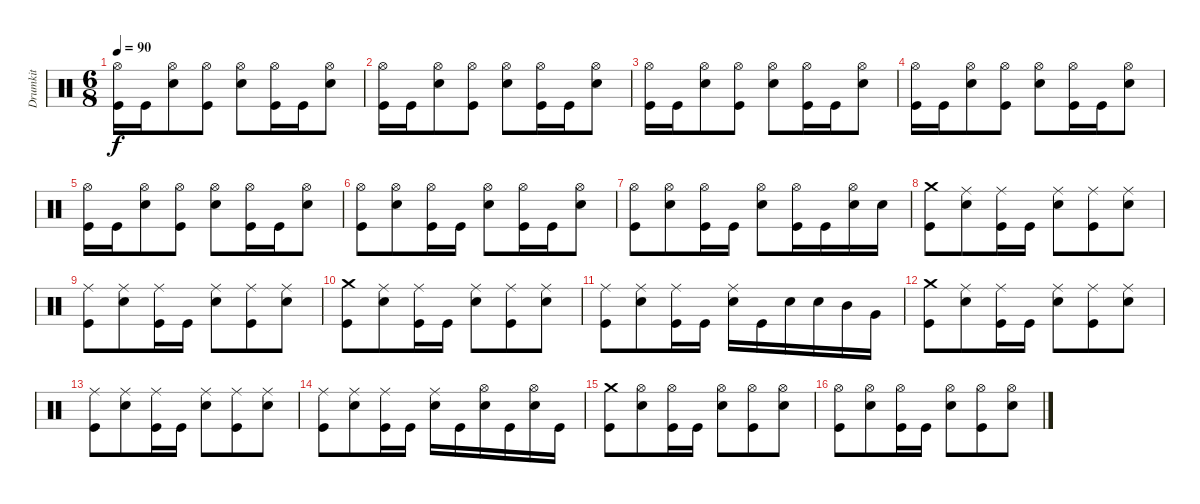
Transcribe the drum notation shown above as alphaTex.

\track ("Drumkit" "Drumkit") {instrument percussion}
\staff {score}
\articulation defaults
\ts (6 8)
\tempo 90
\clef neutral
\ks c
("Hi-Hat (open)" "Kick (hit)").16{dy f} "Kick (hit)".16 ("Hi-Hat (open)" "Snare (hit) 2").8 ("Hi-Hat (open)" "Kick (hit)").8 ("Hi-Hat (open)" "Snare (hit) 2").8 ("Hi-Hat (open)" "Kick (hit)").16 "Kick (hit)".16 ("Hi-Hat (open)" "Snare (hit) 2").8 |
("Hi-Hat (open)" "Kick (hit)").16 "Kick (hit)".16 ("Hi-Hat (open)" "Snare (hit) 2").8 ("Hi-Hat (open)" "Kick (hit)").8 ("Hi-Hat (open)" "Snare (hit) 2").8 ("Hi-Hat (open)" "Kick (hit)").16 "Kick (hit)".16 ("Hi-Hat (open)" "Snare (hit) 2").8 |
("Hi-Hat (open)" "Kick (hit)").16 "Kick (hit)".16 ("Hi-Hat (open)" "Snare (hit) 2").8 ("Hi-Hat (open)" "Kick (hit)").8 ("Hi-Hat (open)" "Snare (hit) 2").8 ("Hi-Hat (open)" "Kick (hit)").16 "Kick (hit)".16 ("Hi-Hat (open)" "Snare (hit) 2").8 |
("Hi-Hat (open)" "Kick (hit)").16 "Kick (hit)".16 ("Hi-Hat (open)" "Snare (hit) 2").8 ("Hi-Hat (open)" "Kick (hit)").8 ("Hi-Hat (open)" "Snare (hit) 2").8 ("Hi-Hat (open)" "Kick (hit)").16 "Kick (hit)".16 ("Hi-Hat (open)" "Snare (hit) 2").8 |
("Hi-Hat (open)" "Kick (hit)").16 "Kick (hit)".16 ("Hi-Hat (open)" "Snare (hit) 2").8 ("Hi-Hat (open)" "Kick (hit)").8 ("Hi-Hat (open)" "Snare (hit) 2").8 ("Hi-Hat (open)" "Kick (hit)").16 "Kick (hit)".16 ("Hi-Hat (open)" "Snare (hit) 2").8 |
("Hi-Hat (open)" "Kick (hit)").8 ("Hi-Hat (open)" "Snare (hit) 2").8 ("Hi-Hat (open)" "Kick (hit)").16 "Kick (hit)".16 ("Hi-Hat (open)" "Snare (hit) 2").8 ("Hi-Hat (open)" "Kick (hit)").16 "Kick (hit)".16 ("Hi-Hat (open)" "Snare (hit) 2").8 |
("Hi-Hat (open)" "Kick (hit)").8 ("Hi-Hat (open)" "Snare (hit) 2").8 ("Hi-Hat (open)" "Kick (hit)").16 "Kick (hit)".16 ("Hi-Hat (open)" "Snare (hit) 2").8 ("Hi-Hat (open)" "Kick (hit)").16 "Kick (hit)".16 ("Hi-Hat (open)" "Snare (hit) 2").16 "Snare (hit) 2".16 |
("Crash medium (hit)" "Kick (hit)").8 ("Ride (middle)" "Snare (hit) 2").8 ("Ride (middle)" "Kick (hit)").16 "Kick (hit)".16 ("Ride (middle)" "Snare (hit) 2").8 ("Ride (middle)" "Kick (hit)").8 ("Ride (middle)" "Snare (hit) 2").8 |
("Ride (middle)" "Kick (hit)").8 ("Ride (middle)" "Snare (hit) 2").8 ("Ride (middle)" "Kick (hit)").16 "Kick (hit)".16 ("Ride (middle)" "Snare (hit) 2").8 ("Ride (middle)" "Kick (hit)").8 ("Ride (middle)" "Snare (hit) 2").8 |
("Crash medium (hit)" "Kick (hit)").8 ("Ride (middle)" "Snare (hit) 2").8 ("Ride (middle)" "Kick (hit)").16 "Kick (hit)".16 ("Ride (middle)" "Snare (hit) 2").8 ("Ride (middle)" "Kick (hit)").8 ("Ride (middle)" "Snare (hit) 2").8 |
("Ride (middle)" "Kick (hit)").8 ("Ride (middle)" "Snare (hit) 2").8 ("Ride (middle)" "Kick (hit)").16 "Kick (hit)".16 ("Ride (middle)" "Snare (hit) 2").16 "Kick (hit)".16 "Snare (hit) 2".16 "Snare (hit) 2".16 "Mid Tom (hit)".16 "Very Low Tom (hit)".16 |
("Crash medium (hit)" "Kick (hit)").8 ("Ride (middle)" "Snare (hit) 2").8 ("Ride (middle)" "Kick (hit)").16 "Kick (hit)".16 ("Ride (middle)" "Snare (hit) 2").8 ("Ride (middle)" "Kick (hit)").8 ("Ride (middle)" "Snare (hit) 2").8 |
("Ride (middle)" "Kick (hit)").8 ("Ride (middle)" "Snare (hit) 2").8 ("Ride (middle)" "Kick (hit)").16 "Kick (hit)".16 ("Ride (middle)" "Snare (hit) 2").8 ("Ride (middle)" "Kick (hit)").8 ("Ride (middle)" "Snare (hit) 2").8 |
("Ride (middle)" "Kick (hit)").8 ("Ride (middle)" "Snare (hit) 2").8 ("Ride (middle)" "Kick (hit)").16 "Kick (hit)".16 ("Ride (middle)" "Snare (hit) 2").16 "Kick (hit)".16 ("Hi-Hat (open)" "Snare (hit) 2").16 "Kick (hit)".16 ("Hi-Hat (open)" "Snare (hit) 2").16 "Kick (hit)".16 |
("Crash medium (hit)" "Kick (hit)").8 ("Hi-Hat (open)" "Snare (hit) 2").8 ("Hi-Hat (open)" "Kick (hit)").16 "Kick (hit)".16 ("Hi-Hat (open)" "Snare (hit) 2").8 ("Hi-Hat (open)" "Kick (hit)").8 ("Hi-Hat (open)" "Snare (hit) 2").8 |
("Hi-Hat (open)" "Kick (hit)").8 ("Hi-Hat (open)" "Snare (hit) 2").8 ("Hi-Hat (open)" "Kick (hit)").16 "Kick (hit)".16 ("Hi-Hat (open)" "Snare (hit) 2").8 ("Hi-Hat (open)" "Kick (hit)").8 ("Hi-Hat (open)" "Snare (hit) 2").8
